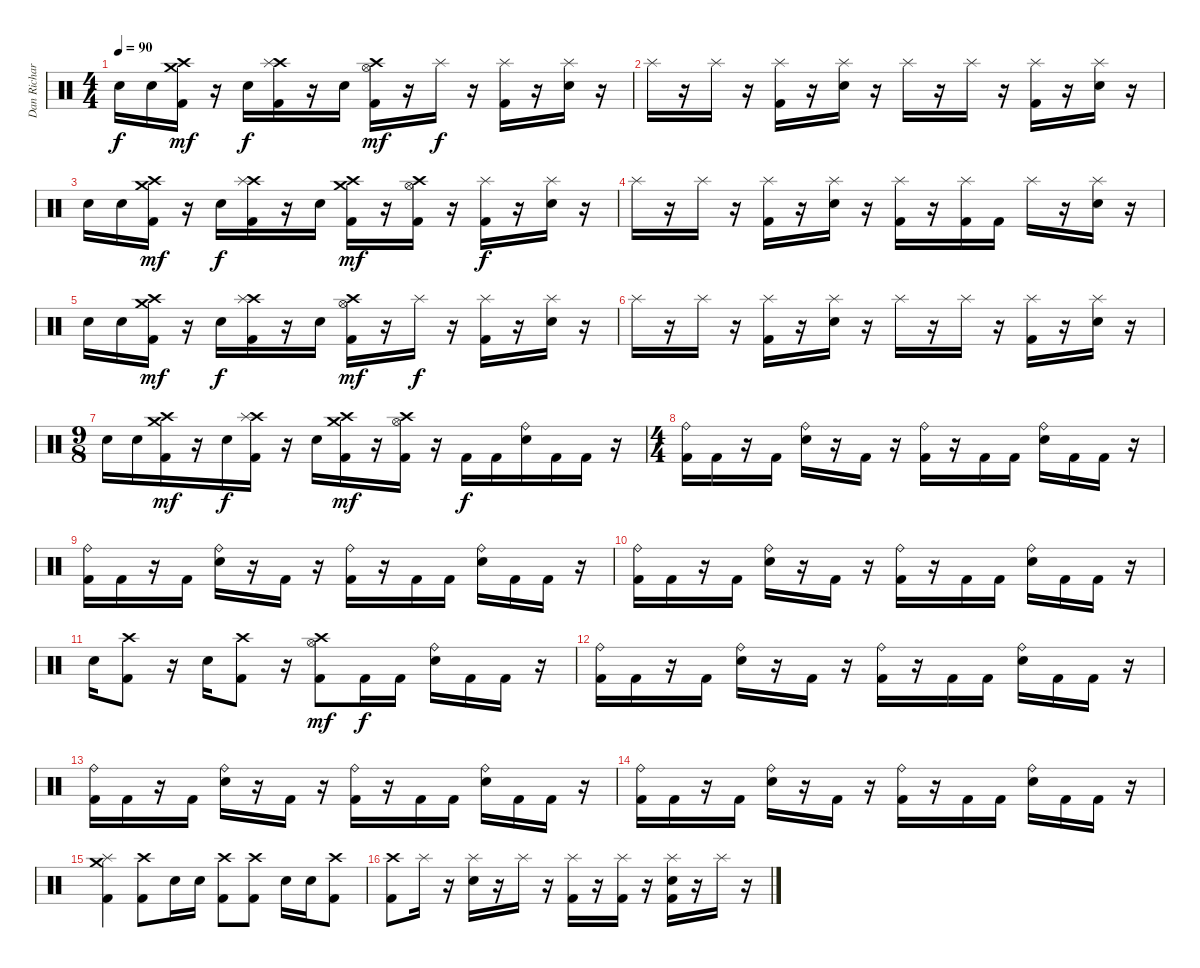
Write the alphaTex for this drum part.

\track ("Dan Richardson" "Dan Richar") {instrument percussion}
\staff {score}
\articulation defaults
\ts (4 4)
\tempo 90
\clef neutral
\ks c "Snare (hit) 2".16{dy f} "Snare (hit) 2".16
("Crash medium (hit)" "Crash high (hit)" "Kick (hit) 2").16{dy mf} r.16 "Snare (hit) 2".16{dy f} ("Crash high (hit)" "Splash (hit)" "Kick (hit) 2").16 r.16 "Snare (hit) 2".16 ("Crash high (hit)" "Hi-Hat (open)" "Kick (hit) 2").16{dy mf} r.16 "Splash (hit)".16{dy f} r.16 ("Splash (hit)" "Kick (hit) 2").16 r.16 ("Splash (hit)" "Snare (hit) 2").16 r.16 |
"Splash (hit)".16 r.16 "Splash (hit)".16 r.16 ("Splash (hit)" "Kick (hit) 2").16 r.16 ("Splash (hit)" "Snare (hit) 2").16 r.16 "Splash (hit)".16 r.16 "Splash (hit)".16 r.16 ("Splash (hit)" "Kick (hit) 2").16 r.16 ("Splash (hit)" "Snare (hit) 2").16 r.16 |
"Snare (hit) 2".16 "Snare (hit) 2".16 ("Crash medium (hit)" "Crash high (hit)" "Kick (hit) 2").16{dy mf} r.16 "Snare (hit) 2".16{dy f} ("Crash high (hit)" "Splash (hit)" "Kick (hit) 2").16 r.16 "Snare (hit) 2".16 ("Crash medium (hit)" "Crash high (hit)" "Kick (hit) 2").16{dy mf} r.16 ("Crash high (hit)" "Hi-Hat (open)" "Kick (hit) 2").16 r.16 ("Splash (hit)" "Kick (hit) 2").16{dy f} r.16 ("Splash (hit)" "Snare (hit) 2").16 r.16 |
"Splash (hit)".16 r.16 "Splash (hit)".16 r.16 ("Splash (hit)" "Kick (hit) 2").16 r.16 ("Splash (hit)" "Snare (hit) 2").16 r.16 ("Splash (hit)" "Kick (hit) 2").16 r.16 ("Splash (hit)" "Kick (hit) 2").16 "Kick (hit) 2".16 "Splash (hit)".16 r.16 ("Splash (hit)" "Snare (hit) 2").16 r.16 |
"Snare (hit) 2".16 "Snare (hit) 2".16 ("Crash medium (hit)" "Crash high (hit)" "Kick (hit) 2").16{dy mf} r.16 "Snare (hit) 2".16{dy f} ("Crash high (hit)" "Splash (hit)" "Kick (hit) 2").16 r.16 "Snare (hit) 2".16 ("Crash high (hit)" "Hi-Hat (open)" "Kick (hit) 2").16{dy mf} r.16 "Splash (hit)".16{dy f} r.16 ("Splash (hit)" "Kick (hit) 2").16 r.16 ("Splash (hit)" "Snare (hit) 2").16 r.16 |
"Splash (hit)".16 r.16 "Splash (hit)".16 r.16 ("Splash (hit)" "Kick (hit) 2").16 r.16 ("Splash (hit)" "Snare (hit) 2").16 r.16 "Splash (hit)".16 r.16 "Splash (hit)".16 r.16 ("Splash (hit)" "Kick (hit) 2").16 r.16 ("Splash (hit)" "Snare (hit) 2").16 r.16 |
\ts (9 8)
"Snare (hit) 2".16 "Snare (hit) 2".16 ("Crash medium (hit)" "Crash high (hit)" "Kick (hit) 2").16{dy mf} r.16 "Snare (hit) 2".16{dy f} ("Crash high (hit)" "Splash (hit)" "Kick (hit) 2").16 r.16 "Snare (hit) 2".16 ("Crash medium (hit)" "Crash high (hit)" "Kick (hit) 2").16{dy mf} r.16 ("Crash high (hit)" "Hi-Hat (open)" "Kick (hit) 2").16 r.16 "Kick (hit) 2".16{dy f} "Kick (hit) 2".16 ("Ride (bell)" "Snare (hit) 2").16 "Kick (hit) 2".16 "Kick (hit) 2".16 r.16 |
\ts (4 4)
("Ride (bell)" "Kick (hit) 2").16 "Kick (hit) 2".16 r.16 "Kick (hit) 2".16 ("Ride (bell)" "Snare (hit) 2").16 r.16 "Kick (hit) 2".16 r.16 ("Ride (bell)" "Kick (hit) 2").16 r.16 "Kick (hit) 2".16 "Kick (hit) 2".16 ("Ride (bell)" "Snare (hit) 2").16 "Kick (hit) 2".16 "Kick (hit) 2".16 r.16 |
("Ride (bell)" "Kick (hit) 2").16 "Kick (hit) 2".16 r.16 "Kick (hit) 2".16 ("Ride (bell)" "Snare (hit) 2").16 r.16 "Kick (hit) 2".16 r.16 ("Ride (bell)" "Kick (hit) 2").16 r.16 "Kick (hit) 2".16 "Kick (hit) 2".16 ("Ride (bell)" "Snare (hit) 2").16 "Kick (hit) 2".16 "Kick (hit) 2".16 r.16 |
("Ride (bell)" "Kick (hit) 2").16 "Kick (hit) 2".16 r.16 "Kick (hit) 2".16 ("Ride (bell)" "Snare (hit) 2").16 r.16 "Kick (hit) 2".16 r.16 ("Ride (bell)" "Kick (hit) 2").16 r.16 "Kick (hit) 2".16 "Kick (hit) 2".16 ("Ride (bell)" "Snare (hit) 2").16 "Kick (hit) 2".16 "Kick (hit) 2".16 r.16 |
"Snare (hit) 2".16 ("Crash high (hit)" "Kick (hit) 2").8 r.16 "Snare (hit) 2".16 ("Crash high (hit)" "Kick (hit) 2").8 r.16 ("Crash high (hit)" "Hi-Hat (open)" "Kick (hit) 2").8{dy mf} "Kick (hit) 2".16{dy f} "Kick (hit) 2".16 ("Ride (bell)" "Snare (hit) 2").16 "Kick (hit) 2".16 "Kick (hit) 2".16 r.16 |
("Ride (bell)" "Kick (hit) 2").16 "Kick (hit) 2".16 r.16 "Kick (hit) 2".16 ("Ride (bell)" "Snare (hit) 2").16 r.16 "Kick (hit) 2".16 r.16 ("Ride (bell)" "Kick (hit) 2").16 r.16 "Kick (hit) 2".16 "Kick (hit) 2".16 ("Ride (bell)" "Snare (hit) 2").16 "Kick (hit) 2".16 "Kick (hit) 2".16 r.16 |
("Ride (bell)" "Kick (hit) 2").16 "Kick (hit) 2".16 r.16 "Kick (hit) 2".16 ("Ride (bell)" "Snare (hit) 2").16 r.16 "Kick (hit) 2".16 r.16 ("Ride (bell)" "Kick (hit) 2").16 r.16 "Kick (hit) 2".16 "Kick (hit) 2".16 ("Ride (bell)" "Snare (hit) 2").16 "Kick (hit) 2".16 "Kick (hit) 2".16 r.16 |
("Ride (bell)" "Kick (hit) 2").16 "Kick (hit) 2".16 r.16 "Kick (hit) 2".16 ("Ride (bell)" "Snare (hit) 2").16 r.16 "Kick (hit) 2".16 r.16 ("Ride (bell)" "Kick (hit) 2").16 r.16 "Kick (hit) 2".16 "Kick (hit) 2".16 ("Ride (bell)" "Snare (hit) 2").16 "Kick (hit) 2".16 "Kick (hit) 2".16 r.16 |
("Crash medium (hit)" "Splash (hit)" "Kick (hit) 2").4 ("Crash high (hit)" "Kick (hit) 2").8 "Snare (hit) 2".16 "Snare (hit) 2".16 ("Crash high (hit)" "Kick (hit) 2").8 ("Crash high (hit)" "Kick (hit) 2").8 "Snare (hit) 2".16 "Snare (hit) 2".16 ("Crash high (hit)" "Kick (hit) 2").8 |
("Crash high (hit)" "Kick (hit) 2").8 "Splash (hit)".16 r.16 ("Splash (hit)" "Snare (hit) 2").16 r.16 "Splash (hit)".16 r.16 ("Splash (hit)" "Kick (hit) 2").16 r.16 ("Splash (hit)" "Kick (hit) 2").16 r.16 ("Splash (hit)" "Snare (hit) 2" "Kick (hit) 2").16 r.16 "Splash (hit)".16 r.16
